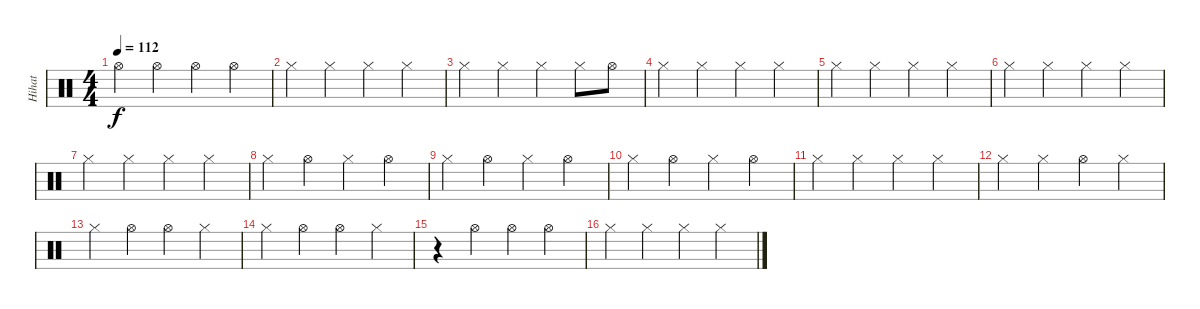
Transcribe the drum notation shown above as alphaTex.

\track ("Hihat" "Hihat") {instrument percussion}
\staff {score}
\articulation defaults
\ts (4 4)
\tempo 112
\clef neutral
\ks c "Hi-Hat (open)".4{dy f} "Hi-Hat (open)".4 "Hi-Hat (open)".4 "Hi-Hat (open)".4
|
"Hi-Hat (closed)".4 "Hi-Hat (closed)".4 "Hi-Hat (closed)".4 "Hi-Hat (closed)".4 |
"Hi-Hat (closed)".4 "Hi-Hat (closed)".4 "Hi-Hat (closed)".4 "Hi-Hat (closed)".8 "Hi-Hat (open)".8 |
"Hi-Hat (closed)".4 "Hi-Hat (closed)".4 "Hi-Hat (closed)".4 "Hi-Hat (closed)".4 |
"Hi-Hat (closed)".4 "Hi-Hat (closed)".4 "Hi-Hat (closed)".4 "Hi-Hat (closed)".4 |
"Hi-Hat (closed)".4 "Hi-Hat (closed)".4 "Hi-Hat (closed)".4 "Hi-Hat (closed)".4 |
"Hi-Hat (closed)".4 "Hi-Hat (closed)".4 "Hi-Hat (closed)".4 "Hi-Hat (closed)".4 |
"Hi-Hat (closed)".4 "Hi-Hat (open)".4 "Hi-Hat (closed)".4 "Hi-Hat (open)".4 |
"Hi-Hat (closed)".4 "Hi-Hat (open)".4 "Hi-Hat (closed)".4 "Hi-Hat (open)".4 |
"Hi-Hat (closed)".4 "Hi-Hat (open)".4 "Hi-Hat (closed)".4 "Hi-Hat (open)".4 |
"Hi-Hat (closed)".4 "Hi-Hat (closed)".4 "Hi-Hat (closed)".4 "Hi-Hat (closed)".4 |
"Hi-Hat (closed)".4 "Hi-Hat (closed)".4 "Hi-Hat (open)".4 "Hi-Hat (closed)".4 |
"Hi-Hat (closed)".4 "Hi-Hat (open)".4 "Hi-Hat (open)".4 "Hi-Hat (closed)".4 |
"Hi-Hat (closed)".4 "Hi-Hat (open)".4 "Hi-Hat (open)".4 "Hi-Hat (closed)".4 |
r.4 "Hi-Hat (open)".4 "Hi-Hat (open)".4 "Hi-Hat (open)".4 |
"Hi-Hat (closed)".4 "Hi-Hat (closed)".4 "Hi-Hat (closed)".4 "Hi-Hat (closed)".4
